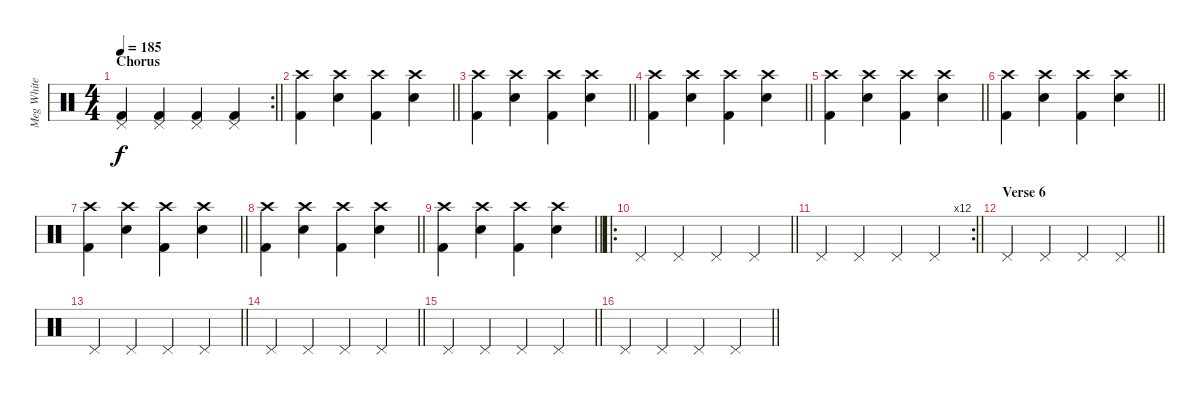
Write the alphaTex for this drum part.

\track ("Meg White (Drums)" "Meg White ") {instrument percussion}
\staff {score}
\articulation defaults
\rc 2
\ts (4 4)
\section ("" "Chorus")
\tempo 185
\clef neutral
\barLineRight lightlight
\ks c
("Kick (hit) 2" "Pedal Hi-Hat (hit)").4{dy f} ("Kick (hit) 2" "Pedal Hi-Hat (hit)").4 ("Kick (hit) 2" "Pedal Hi-Hat (hit)").4 ("Kick (hit) 2" "Pedal Hi-Hat (hit)").4 |
\barLineRight lightlight
("Kick (hit) 2" "Crash high (hit)").4 ("Electric Snare (hit)" "Crash high (hit)").4 ("Kick (hit) 2" "Crash high (hit)").4 ("Electric Snare (hit)" "Crash high (hit)").4 |
\barLineRight lightlight
("Kick (hit) 2" "Crash high (hit)").4 ("Electric Snare (hit)" "Crash high (hit)").4 ("Kick (hit) 2" "Crash high (hit)").4 ("Electric Snare (hit)" "Crash high (hit)").4 |
\barLineRight lightlight
("Kick (hit) 2" "Crash high (hit)").4 ("Electric Snare (hit)" "Crash high (hit)").4 ("Kick (hit) 2" "Crash high (hit)").4 ("Electric Snare (hit)" "Crash high (hit)").4 |
\barLineRight lightlight
("Kick (hit) 2" "Crash high (hit)").4 ("Electric Snare (hit)" "Crash high (hit)").4 ("Kick (hit) 2" "Crash high (hit)").4 ("Electric Snare (hit)" "Crash high (hit)").4 |
\barLineRight lightlight
("Kick (hit) 2" "Crash high (hit)").4 ("Electric Snare (hit)" "Crash high (hit)").4 ("Kick (hit) 2" "Crash high (hit)").4 ("Electric Snare (hit)" "Crash high (hit)").4 |
\barLineRight lightlight
("Kick (hit) 2" "Crash high (hit)").4 ("Electric Snare (hit)" "Crash high (hit)").4 ("Kick (hit) 2" "Crash high (hit)").4 ("Electric Snare (hit)" "Crash high (hit)").4 |
\barLineRight lightlight
("Kick (hit) 2" "Crash high (hit)").4 ("Electric Snare (hit)" "Crash high (hit)").4 ("Kick (hit) 2" "Crash high (hit)").4 ("Electric Snare (hit)" "Crash high (hit)").4 |
\barLineRight lightlight
("Kick (hit) 2" "Crash high (hit)").4 ("Electric Snare (hit)" "Crash high (hit)").4 ("Kick (hit) 2" "Crash high (hit)").4 ("Electric Snare (hit)" "Crash high (hit)").4 |
\ro
\barLineRight lightlight "Pedal Hi-Hat (hit)".4 "Pedal Hi-Hat (hit)".4 "Pedal Hi-Hat (hit)".4 "Pedal Hi-Hat (hit)".4
|
\rc 12
\barLineRight lightlight "Pedal Hi-Hat (hit)".4 "Pedal Hi-Hat (hit)".4 "Pedal Hi-Hat (hit)".4 "Pedal Hi-Hat (hit)".4
|
\section ("" "Verse 6")
\barLineRight lightlight "Pedal Hi-Hat (hit)".4 "Pedal Hi-Hat (hit)".4 "Pedal Hi-Hat (hit)".4 "Pedal Hi-Hat (hit)".4
|
\barLineRight lightlight "Pedal Hi-Hat (hit)".4 "Pedal Hi-Hat (hit)".4 "Pedal Hi-Hat (hit)".4 "Pedal Hi-Hat (hit)".4
|
\barLineRight lightlight "Pedal Hi-Hat (hit)".4 "Pedal Hi-Hat (hit)".4 "Pedal Hi-Hat (hit)".4 "Pedal Hi-Hat (hit)".4
|
\barLineRight lightlight "Pedal Hi-Hat (hit)".4 "Pedal Hi-Hat (hit)".4 "Pedal Hi-Hat (hit)".4 "Pedal Hi-Hat (hit)".4
|
\barLineRight lightlight "Pedal Hi-Hat (hit)".4 "Pedal Hi-Hat (hit)".4 "Pedal Hi-Hat (hit)".4 "Pedal Hi-Hat (hit)".4
